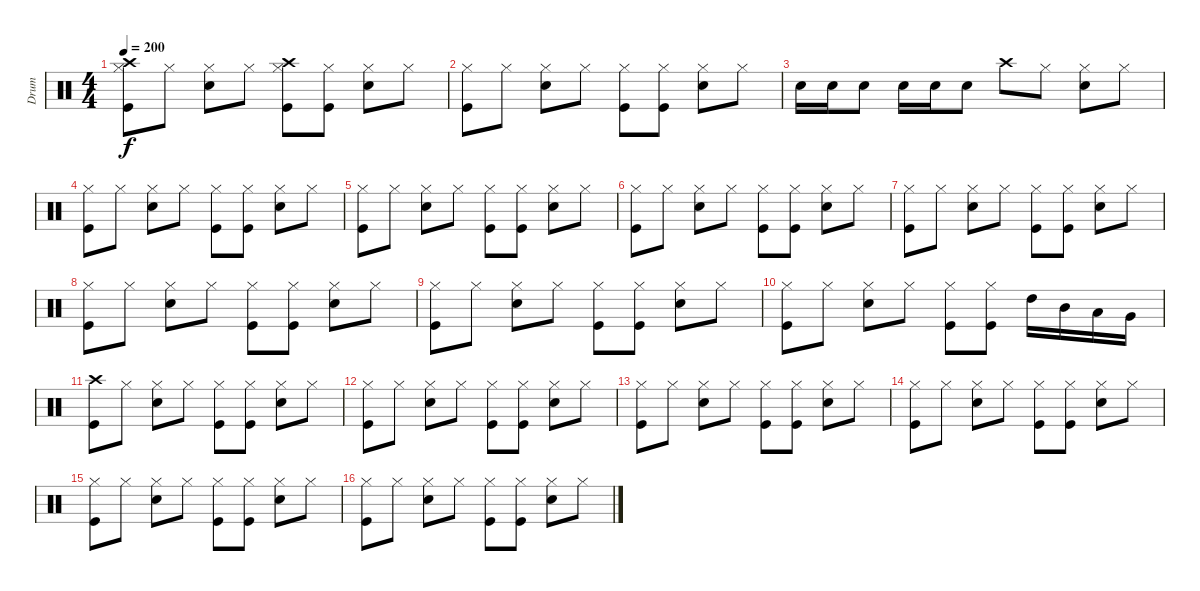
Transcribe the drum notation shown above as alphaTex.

\track ("Drum" "Drum") {instrument percussion}
\staff {score}
\articulation defaults
\ts (4 4)
\tempo 200
\clef neutral
\ks c
("Crash high (hit)" "Hi-Hat (closed)" "Kick (hit)").8{dy f} "Hi-Hat (closed)".8 ("Hi-Hat (closed)" "Electric Snare (hit)").8 "Hi-Hat (closed)".8 ("Crash high (hit)" "Hi-Hat (closed)" "Kick (hit)").8 ("Hi-Hat (closed)" "Kick (hit)").8 ("Hi-Hat (closed)" "Electric Snare (hit)").8 "Hi-Hat (closed)".8 |
("Hi-Hat (closed)" "Kick (hit)").8 "Hi-Hat (closed)".8 ("Hi-Hat (closed)" "Electric Snare (hit)").8 "Hi-Hat (closed)".8 ("Hi-Hat (closed)" "Kick (hit)").8 ("Hi-Hat (closed)" "Kick (hit)").8 ("Hi-Hat (closed)" "Electric Snare (hit)").8 "Hi-Hat (closed)".8 |
"Electric Snare (hit)".16 "Electric Snare (hit)".16 "Electric Snare (hit)".8 "Electric Snare (hit)".16 "Electric Snare (hit)".16 "Electric Snare (hit)".8 "Crash high (hit)".8 "Hi-Hat (closed)".8 ("Hi-Hat (closed)" "Electric Snare (hit)").8 "Hi-Hat (closed)".8 |
("Hi-Hat (closed)" "Kick (hit)").8 "Hi-Hat (closed)".8 ("Hi-Hat (closed)" "Electric Snare (hit)").8 "Hi-Hat (closed)".8 ("Hi-Hat (closed)" "Kick (hit)").8 ("Hi-Hat (closed)" "Kick (hit)").8 ("Hi-Hat (closed)" "Electric Snare (hit)").8 "Hi-Hat (closed)".8 |
("Hi-Hat (closed)" "Kick (hit)").8 "Hi-Hat (closed)".8 ("Hi-Hat (closed)" "Electric Snare (hit)").8 "Hi-Hat (closed)".8 ("Hi-Hat (closed)" "Kick (hit)").8 ("Hi-Hat (closed)" "Kick (hit)").8 ("Hi-Hat (closed)" "Electric Snare (hit)").8 "Hi-Hat (closed)".8 |
("Hi-Hat (closed)" "Kick (hit)").8 "Hi-Hat (closed)".8 ("Hi-Hat (closed)" "Electric Snare (hit)").8 "Hi-Hat (closed)".8 ("Hi-Hat (closed)" "Kick (hit)").8 ("Hi-Hat (closed)" "Kick (hit)").8 ("Hi-Hat (closed)" "Electric Snare (hit)").8 "Hi-Hat (closed)".8 |
("Hi-Hat (closed)" "Kick (hit)").8 "Hi-Hat (closed)".8 ("Hi-Hat (closed)" "Electric Snare (hit)").8 "Hi-Hat (closed)".8 ("Hi-Hat (closed)" "Kick (hit)").8 ("Hi-Hat (closed)" "Kick (hit)").8 ("Hi-Hat (closed)" "Electric Snare (hit)").8 "Hi-Hat (closed)".8 |
("Hi-Hat (closed)" "Kick (hit)").8 "Hi-Hat (closed)".8 ("Hi-Hat (closed)" "Electric Snare (hit)").8 "Hi-Hat (closed)".8 ("Hi-Hat (closed)" "Kick (hit)").8 ("Hi-Hat (closed)" "Kick (hit)").8 ("Hi-Hat (closed)" "Electric Snare (hit)").8 "Hi-Hat (closed)".8 |
("Hi-Hat (closed)" "Kick (hit)").8 "Hi-Hat (closed)".8 ("Hi-Hat (closed)" "Electric Snare (hit)").8 "Hi-Hat (closed)".8 ("Hi-Hat (closed)" "Kick (hit)").8 ("Hi-Hat (closed)" "Kick (hit)").8 ("Hi-Hat (closed)" "Electric Snare (hit)").8 "Hi-Hat (closed)".8 |
("Hi-Hat (closed)" "Kick (hit)").8 "Hi-Hat (closed)".8 ("Hi-Hat (closed)" "Electric Snare (hit)").8 "Hi-Hat (closed)".8 ("Hi-Hat (closed)" "Kick (hit)").8 ("Hi-Hat (closed)" "Kick (hit)").8 "High Tom (hit)".16 "Mid Tom (hit)".16 "Low Tom (hit)".16 "Very Low Tom (hit)".16 |
("Crash high (hit)" "Kick (hit)").8 "Hi-Hat (closed)".8 ("Hi-Hat (closed)" "Electric Snare (hit)").8 "Hi-Hat (closed)".8 ("Hi-Hat (closed)" "Kick (hit)").8 ("Hi-Hat (closed)" "Kick (hit)").8 ("Hi-Hat (closed)" "Electric Snare (hit)").8 "Hi-Hat (closed)".8 |
("Hi-Hat (closed)" "Kick (hit)").8 "Hi-Hat (closed)".8 ("Hi-Hat (closed)" "Electric Snare (hit)").8 "Hi-Hat (closed)".8 ("Hi-Hat (closed)" "Kick (hit)").8 ("Hi-Hat (closed)" "Kick (hit)").8 ("Hi-Hat (closed)" "Electric Snare (hit)").8 "Hi-Hat (closed)".8 |
("Hi-Hat (closed)" "Kick (hit)").8 "Hi-Hat (closed)".8 ("Hi-Hat (closed)" "Electric Snare (hit)").8 "Hi-Hat (closed)".8 ("Hi-Hat (closed)" "Kick (hit)").8 ("Hi-Hat (closed)" "Kick (hit)").8 ("Hi-Hat (closed)" "Electric Snare (hit)").8 "Hi-Hat (closed)".8 |
("Hi-Hat (closed)" "Kick (hit)").8 "Hi-Hat (closed)".8 ("Hi-Hat (closed)" "Electric Snare (hit)").8 "Hi-Hat (closed)".8 ("Hi-Hat (closed)" "Kick (hit)").8 ("Hi-Hat (closed)" "Kick (hit)").8 ("Hi-Hat (closed)" "Electric Snare (hit)").8 "Hi-Hat (closed)".8 |
("Hi-Hat (closed)" "Kick (hit)").8 "Hi-Hat (closed)".8 ("Hi-Hat (closed)" "Electric Snare (hit)").8 "Hi-Hat (closed)".8 ("Hi-Hat (closed)" "Kick (hit)").8 ("Hi-Hat (closed)" "Kick (hit)").8 ("Hi-Hat (closed)" "Electric Snare (hit)").8 "Hi-Hat (closed)".8 |
("Hi-Hat (closed)" "Kick (hit)").8 "Hi-Hat (closed)".8 ("Hi-Hat (closed)" "Electric Snare (hit)").8 "Hi-Hat (closed)".8 ("Hi-Hat (closed)" "Kick (hit)").8 ("Hi-Hat (closed)" "Kick (hit)").8 ("Hi-Hat (closed)" "Electric Snare (hit)").8 "Hi-Hat (closed)".8
